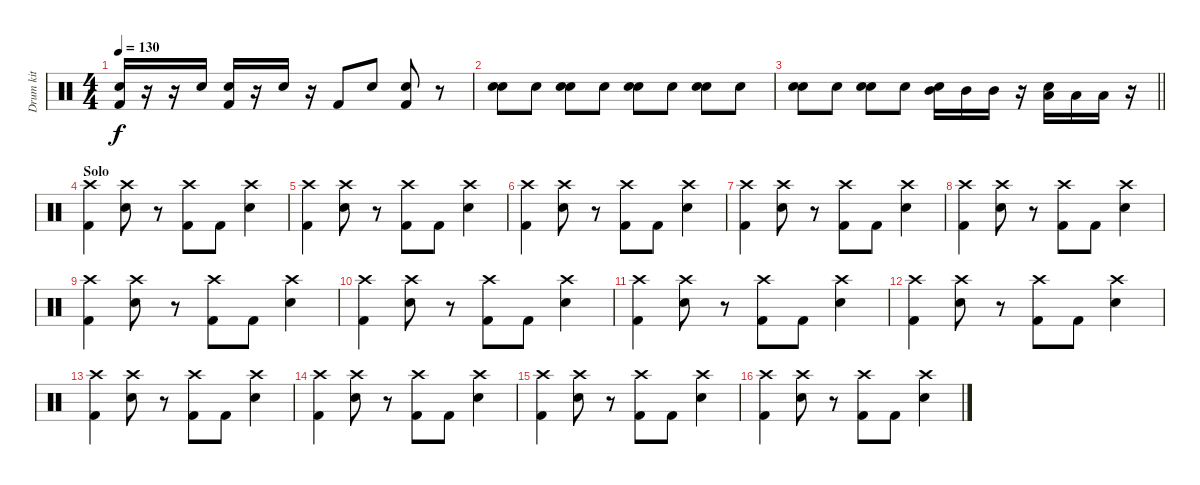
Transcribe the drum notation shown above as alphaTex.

\track ("Drum kit" "Drum kit") {instrument percussion}
\staff {score}
\articulation defaults
\ts (4 4)
\tempo 130
\clef neutral
\ks c
("Hand Clap (hit)" "Kick (hit) 2").16{dy f} r.16 r.16 "Hand Clap (hit)".16 ("Hand Clap (hit)" "Kick (hit) 2").16 r.16 "Hand Clap (hit)".16 r.16 "Kick (hit) 2".8 "Hand Clap (hit)".8 ("Hand Clap (hit)" "Kick (hit) 2").8 r.8 |
("Electric Snare (hit)" "Hand Clap (hit)").8 "Electric Snare (hit)".8 ("Electric Snare (hit)" "Hand Clap (hit)").8 "Electric Snare (hit)".8 ("Electric Snare (hit)" "Hand Clap (hit)").8 "Electric Snare (hit)".8 ("Electric Snare (hit)" "Hand Clap (hit)").8 "Electric Snare (hit)".8 |
\barLineRight lightlight
("Electric Snare (hit)" "Hand Clap (hit)").8 "Electric Snare (hit)".8 ("Electric Snare (hit)" "Hand Clap (hit)").8 "Electric Snare (hit)".8 ("Mid Tom (hit)" "Hand Clap (hit)").16 "Mid Tom (hit)".16 "Mid Tom (hit)".16 r.16 ("Low Tom (hit)" "Hand Clap (hit)").16 "Low Tom (hit)".16 "Low Tom (hit)".16 r.16 |
\section ("" "Solo")
("Crash high (hit)" "Kick (hit) 2").4 ("Crash high (hit)" "Electric Snare (hit)").8 r.8 ("Crash high (hit)" "Kick (hit) 2").8 "Kick (hit) 2".8 ("Crash high (hit)" "Electric Snare (hit)").4 |
("Crash high (hit)" "Kick (hit) 2").4 ("Crash high (hit)" "Electric Snare (hit)").8 r.8 ("Crash high (hit)" "Kick (hit) 2").8 "Kick (hit) 2".8 ("Crash high (hit)" "Electric Snare (hit)").4 |
("Crash high (hit)" "Kick (hit) 2").4 ("Crash high (hit)" "Electric Snare (hit)").8 r.8 ("Crash high (hit)" "Kick (hit) 2").8 "Kick (hit) 2".8 ("Crash high (hit)" "Electric Snare (hit)").4 |
("Crash high (hit)" "Kick (hit) 2").4 ("Crash high (hit)" "Electric Snare (hit)").8 r.8 ("Crash high (hit)" "Kick (hit) 2").8 "Kick (hit) 2".8 ("Crash high (hit)" "Electric Snare (hit)").4 |
("Crash high (hit)" "Kick (hit) 2").4 ("Crash high (hit)" "Electric Snare (hit)").8 r.8 ("Crash high (hit)" "Kick (hit) 2").8 "Kick (hit) 2".8 ("Crash high (hit)" "Electric Snare (hit)").4 |
("Crash high (hit)" "Kick (hit) 2").4 ("Crash high (hit)" "Electric Snare (hit)").8 r.8 ("Crash high (hit)" "Kick (hit) 2").8 "Kick (hit) 2".8 ("Crash high (hit)" "Electric Snare (hit)").4 |
("Crash high (hit)" "Kick (hit) 2").4 ("Crash high (hit)" "Electric Snare (hit)").8 r.8 ("Crash high (hit)" "Kick (hit) 2").8 "Kick (hit) 2".8 ("Crash high (hit)" "Electric Snare (hit)").4 |
("Crash high (hit)" "Kick (hit) 2").4 ("Crash high (hit)" "Electric Snare (hit)").8 r.8 ("Crash high (hit)" "Kick (hit) 2").8 "Kick (hit) 2".8 ("Crash high (hit)" "Electric Snare (hit)").4 |
("Crash high (hit)" "Kick (hit) 2").4 ("Crash high (hit)" "Electric Snare (hit)").8 r.8 ("Crash high (hit)" "Kick (hit) 2").8 "Kick (hit) 2".8 ("Crash high (hit)" "Electric Snare (hit)").4 |
("Crash high (hit)" "Kick (hit) 2").4 ("Crash high (hit)" "Electric Snare (hit)").8 r.8 ("Crash high (hit)" "Kick (hit) 2").8 "Kick (hit) 2".8 ("Crash high (hit)" "Electric Snare (hit)").4 |
("Crash high (hit)" "Kick (hit) 2").4 ("Crash high (hit)" "Electric Snare (hit)").8 r.8 ("Crash high (hit)" "Kick (hit) 2").8 "Kick (hit) 2".8 ("Crash high (hit)" "Electric Snare (hit)").4 |
("Crash high (hit)" "Kick (hit) 2").4 ("Crash high (hit)" "Electric Snare (hit)").8 r.8 ("Crash high (hit)" "Kick (hit) 2").8 "Kick (hit) 2".8 ("Crash high (hit)" "Electric Snare (hit)").4 |
("Crash high (hit)" "Kick (hit) 2").4 ("Crash high (hit)" "Electric Snare (hit)").8 r.8 ("Crash high (hit)" "Kick (hit) 2").8 "Kick (hit) 2".8 ("Crash high (hit)" "Electric Snare (hit)").4
